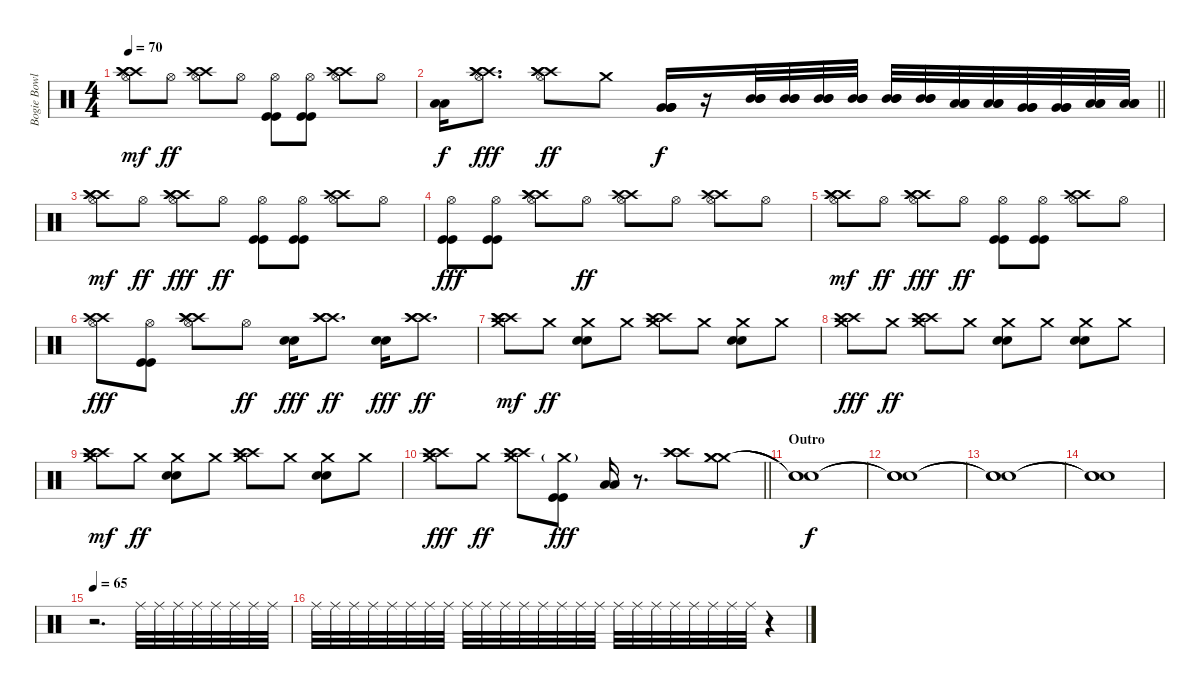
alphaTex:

\track ("Bogie Bowles - Drums" "Bogie Bowl") {instrument percussion}
\staff {score}
\articulation defaults
\ts (4 4)
\tempo 70
\clef neutral
\ks c
("Hi-Hat (open)" "Crash high (hit)" "Crash high (hit)" "Crash high (hit)").8{dy mf} "Hi-Hat (open)".8{dy ff} ("Hi-Hat (open)" "Crash high (hit)" "Crash high (hit)").8 "Hi-Hat (open)".8 ("Hi-Hat (open)" "Kick (hit)" "Kick (hit)").8 ("Hi-Hat (open)" "Kick (hit)" "Kick (hit)").8 ("Hi-Hat (open)" "Crash high (hit)" "Crash high (hit)").8 "Hi-Hat (open)".8 |
\barLineRight lightlight
("Low Tom (hit)" "Low Tom (hit)").16{dy f} ("Hi-Hat (open)" "Crash high (hit)" "Crash high (hit)" "Crash high (hit)").8{d dy fff} ("Hi-Hat (open)" "Crash high (hit)" "Crash high (hit)" "Crash high (hit)").8{dy ff} "Crash medium (hit)".8 ("Very Low Tom (hit)" "Very Low Tom (hit)" "Very Low Tom (hit)" "Very Low Tom (hit)").16{dy f} r.16 ("Mid Tom (hit)" "Mid Tom (hit)" "Mid Tom (hit)").32 ("Mid Tom (hit)" "Mid Tom (hit)" "Mid Tom (hit)").32 ("Mid Tom (hit)" "Mid Tom (hit)" "Mid Tom (hit)").32 ("Mid Tom (hit)" "Mid Tom (hit)" "Mid Tom (hit)").32 ("Mid Tom (hit)" "Mid Tom (hit)" "Mid Tom (hit)").32 ("Mid Tom (hit)" "Mid Tom (hit)" "Mid Tom (hit)").32 ("Low Tom (hit)" "Low Tom (hit)" "Low Tom (hit)").32 ("Low Tom (hit)" "Low Tom (hit)" "Low Tom (hit)").32 ("Very Low Tom (hit)" "Very Low Tom (hit)" "Very Low Tom (hit)").32 ("Very Low Tom (hit)" "Very Low Tom (hit)" "Very Low Tom (hit)").32 ("Low Floor Tom (hit)" "Low Floor Tom (hit)" "Low Floor Tom (hit)").32 ("Low Floor Tom (hit)" "Low Floor Tom (hit)" "Low Floor Tom (hit)").32 |
("Hi-Hat (open)" "Crash high (hit)" "Crash high (hit)" "Crash high (hit)").8{dy mf} "Hi-Hat (open)".8{dy ff} ("Hi-Hat (open)" "Crash high (hit)" "Crash high (hit)" "Crash high (hit)").8{dy fff} "Hi-Hat (open)".8{dy ff} ("Hi-Hat (open)" "Kick (hit)" "Kick (hit)").8 ("Hi-Hat (open)" "Kick (hit)" "Kick (hit)").8 ("Hi-Hat (open)" "Crash high (hit)" "Crash high (hit)").8 "Hi-Hat (open)".8 |
("Hi-Hat (open)" "Kick (hit)" "Kick (hit)").8{dy fff} ("Hi-Hat (open)" "Kick (hit)" "Kick (hit)").8 ("Hi-Hat (open)" "Crash high (hit)" "Crash high (hit)" "Crash high (hit)").8 "Hi-Hat (open)".8{dy ff} ("Hi-Hat (open)" "Crash high (hit)" "Crash high (hit)").8 "Hi-Hat (open)".8 ("Hi-Hat (open)" "Crash high (hit)" "Crash high (hit)").8 "Hi-Hat (open)".8 |
("Hi-Hat (open)" "Crash high (hit)" "Crash high (hit)" "Crash high (hit)").8{dy mf} "Hi-Hat (open)".8{dy ff} ("Hi-Hat (open)" "Crash high (hit)" "Crash high (hit)" "Crash high (hit)").8{dy fff} "Hi-Hat (open)".8{dy ff} ("Hi-Hat (open)" "Kick (hit)" "Kick (hit)").8 ("Hi-Hat (open)" "Kick (hit)" "Kick (hit)").8 ("Hi-Hat (open)" "Crash high (hit)" "Crash high (hit)").8 "Hi-Hat (open)".8 |
("Hi-Hat (open)" "Crash high (hit)" "Crash high (hit)").8{dy fff} ("Hi-Hat (open)" "Kick (hit)" "Kick (hit)").8 ("Hi-Hat (open)" "Crash high (hit)" "Crash high (hit)" "Crash high (hit)").8 "Hi-Hat (open)".8{dy ff} ("Snare (hit) 2" "Snare (hit) 2").16{dy fff} ("Crash high (hit)" "Crash high (hit)" "Crash high (hit)").8{d dy ff} ("Snare (hit) 2" "Snare (hit) 2").16{dy fff} ("Crash high (hit)" "Crash high (hit)" "Crash high (hit)").8{d dy ff} |
("Crash medium (hit)" "Crash high (hit)" "Crash high (hit)" "Crash high (hit)").8{dy mf} "Crash medium (hit)".8{dy ff} ("Crash medium (hit)" "Snare (hit) 2" "Snare (hit) 2").8 "Crash medium (hit)".8 ("Crash medium (hit)" "Crash high (hit)" "Crash high (hit)").8 "Crash medium (hit)".8 ("Crash medium (hit)" "Snare (hit) 2" "Snare (hit) 2").8 "Crash medium (hit)".8 |
("Crash medium (hit)" "Crash high (hit)" "Crash high (hit)").8{dy fff} "Crash medium (hit)".8{dy ff} ("Crash medium (hit)" "Crash high (hit)" "Crash high (hit)").8 "Crash medium (hit)".8 ("Crash medium (hit)" "Snare (hit) 2" "Snare (hit) 2").8 "Crash medium (hit)".8 ("Crash medium (hit)" "Snare (hit) 2" "Snare (hit) 2").8 "Crash medium (hit)".8 |
("Crash medium (hit)" "Crash high (hit)" "Crash high (hit)" "Crash high (hit)").8{dy mf} "Crash medium (hit)".8{dy ff} ("Crash medium (hit)" "Snare (hit) 2" "Snare (hit) 2").8 "Crash medium (hit)".8 ("Crash medium (hit)" "Crash high (hit)" "Crash high (hit)").8 "Crash medium (hit)".8 ("Crash medium (hit)" "Snare (hit) 2" "Snare (hit) 2").8 "Crash medium (hit)".8 |
\barLineRight lightlight
("Crash medium (hit)" "Crash high (hit)" "Crash high (hit)").8{dy fff} "Crash medium (hit)".8{dy ff} ("Crash medium (hit)" "Crash high (hit)" "Crash high (hit)").8 ("Crash medium (hit)"{g} "Kick (hit)" "Kick (hit)").8{dy fff} ("Low Tom (hit)" "Low Tom (hit)").16 r.8{d} ("Crash high (hit)" "Crash high (hit)" "Crash high (hit)").8 ("Crash medium (hit)" "Crash medium (hit)" "Crash medium (hit)").8 |
\section ("" "Outro")
("Snare (hit)"{t} "Snare (hit)"{t} "Snare (hit)"{t}).1{dy f} |
("Snare (hit)"{t} "Snare (hit)"{t} "Snare (hit)"{t}).1{volume 0} |
("Snare (hit)"{t} "Snare (hit)"{t} "Snare (hit)"{t}).1 |
("Snare (hit)"{t} "Snare (hit)"{t} "Snare (hit)"{t}).1{volume 0} |
\tempo 65
r.2{d} "Ride (middle)".32{volume 9} "Ride (middle)".32 "Ride (middle)".32 "Ride (middle)".32 "Ride (middle)".32 "Ride (middle)".32 "Ride (middle)".32 "Ride (middle)".32 |
"Ride (middle)".32 "Ride (middle)".32 "Ride (middle)".32 "Ride (middle)".32 "Ride (middle)".32 "Ride (middle)".32 "Ride (middle)".32 "Ride (middle)".32 "Ride (middle)".32{volume 0} "Ride (middle)".32 "Ride (middle)".32 "Ride (middle)".32 "Ride (middle)".32 "Ride (middle)".32 "Ride (middle)".32 "Ride (middle)".32 "Ride (middle)".32 "Ride (middle)".32 "Ride (middle)".32 "Ride (middle)".32 "Ride (middle)".32 "Ride (middle)".32 "Ride (middle)".32 "Ride (middle)".32 r.4
